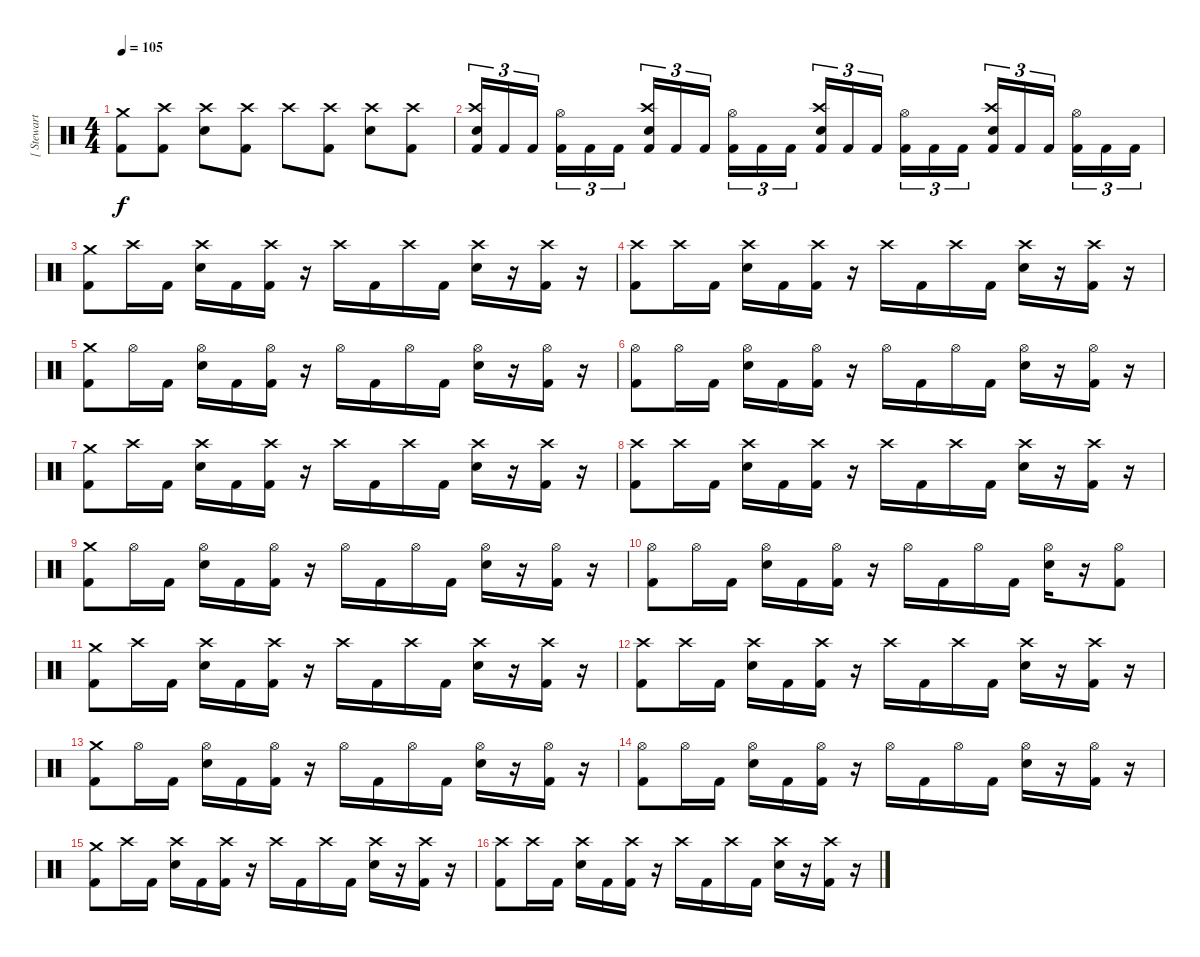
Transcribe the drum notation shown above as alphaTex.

\track ("[ Stewart ]" "[ Stewart ") {instrument percussion}
\staff {score}
\articulation defaults
\ts (4 4)
\tempo 105
\clef neutral
\ks c
("Kick (hit) 2" "Crash medium (hit)").8{dy f} ("Kick (hit) 2" "Crash high (hit)").8 ("Electric Snare (hit)" "Crash high (hit)").8 ("Kick (hit) 2" "Crash high (hit)").8 "Crash high (hit)".8 ("Kick (hit) 2" "Crash high (hit)").8 ("Electric Snare (hit)" "Crash high (hit)").8 ("Kick (hit) 2" "Crash high (hit)").8 |
("Kick (hit) 2" "Electric Snare (hit)" "Crash high (hit)").16{tu (3 2)} "Kick (hit) 2".16{tu (3 2)} "Kick (hit) 2".16{tu (3 2)} ("Kick (hit) 2" "Hi-Hat (open)").16{tu (3 2)} "Kick (hit) 2".16{tu (3 2)} "Kick (hit) 2".16{tu (3 2)} ("Kick (hit) 2" "Electric Snare (hit)" "Crash high (hit)").16{tu (3 2)} "Kick (hit) 2".16{tu (3 2)} "Kick (hit) 2".16{tu (3 2)} ("Kick (hit) 2" "Hi-Hat (open)").16{tu (3 2)} "Kick (hit) 2".16{tu (3 2)} "Kick (hit) 2".16{tu (3 2)} ("Kick (hit) 2" "Electric Snare (hit)" "Crash high (hit)").16{tu (3 2)} "Kick (hit) 2".16{tu (3 2)} "Kick (hit) 2".16{tu (3 2)} ("Kick (hit) 2" "Hi-Hat (open)").16{tu (3 2)} "Kick (hit) 2".16{tu (3 2)} "Kick (hit) 2".16{tu (3 2)} ("Kick (hit) 2" "Electric Snare (hit)" "Crash high (hit)").16{tu (3 2)} "Kick (hit) 2".16{tu (3 2)} "Kick (hit) 2".16{tu (3 2)} ("Kick (hit) 2" "Hi-Hat (open)").16{tu (3 2)} "Kick (hit) 2".16{tu (3 2)} "Kick (hit) 2".16{tu (3 2)} |
("Kick (hit) 2" "Crash medium (hit)").8 "Crash high (hit)".16 "Kick (hit) 2".16 ("Electric Snare (hit)" "Crash high (hit)").16 "Kick (hit) 2".16 ("Kick (hit) 2" "Crash high (hit)").16 r.16 "Crash high (hit)".16 "Kick (hit) 2".16 "Crash high (hit)".16 "Kick (hit) 2".16 ("Electric Snare (hit)" "Crash high (hit)").16 r.16 ("Kick (hit) 2" "Crash high (hit)").16 r.16 |
("Kick (hit) 2" "Crash high (hit)").8 "Crash high (hit)".16 "Kick (hit) 2".16 ("Electric Snare (hit)" "Crash high (hit)").16 "Kick (hit) 2".16 ("Kick (hit) 2" "Crash high (hit)").16 r.16 "Crash high (hit)".16 "Kick (hit) 2".16 "Crash high (hit)".16 "Kick (hit) 2".16 ("Electric Snare (hit)" "Crash high (hit)").16 r.16 ("Kick (hit) 2" "Crash high (hit)").16 r.16 |
("Kick (hit) 2" "Crash medium (hit)").8 "Hi-Hat (open)".16 "Kick (hit) 2".16 ("Electric Snare (hit)" "Hi-Hat (open)").16 "Kick (hit) 2".16 ("Kick (hit) 2" "Hi-Hat (open)").16 r.16 "Hi-Hat (open)".16 "Kick (hit) 2".16 "Hi-Hat (open)".16 "Kick (hit) 2".16 ("Electric Snare (hit)" "Hi-Hat (open)").16 r.16 ("Kick (hit) 2" "Hi-Hat (open)").16 r.16 |
("Kick (hit) 2" "Hi-Hat (open)").8 "Hi-Hat (open)".16 "Kick (hit) 2".16 ("Electric Snare (hit)" "Hi-Hat (open)").16 "Kick (hit) 2".16 ("Kick (hit) 2" "Hi-Hat (open)").16 r.16 "Hi-Hat (open)".16 "Kick (hit) 2".16 "Hi-Hat (open)".16 "Kick (hit) 2".16 ("Electric Snare (hit)" "Hi-Hat (open)").16 r.16 ("Kick (hit) 2" "Hi-Hat (open)").16 r.16 |
("Kick (hit) 2" "Crash medium (hit)").8 "Crash high (hit)".16 "Kick (hit) 2".16 ("Electric Snare (hit)" "Crash high (hit)").16 "Kick (hit) 2".16 ("Kick (hit) 2" "Crash high (hit)").16 r.16 "Crash high (hit)".16 "Kick (hit) 2".16 "Crash high (hit)".16 "Kick (hit) 2".16 ("Electric Snare (hit)" "Crash high (hit)").16 r.16 ("Kick (hit) 2" "Crash high (hit)").16 r.16 |
("Kick (hit) 2" "Crash high (hit)").8 "Crash high (hit)".16 "Kick (hit) 2".16 ("Electric Snare (hit)" "Crash high (hit)").16 "Kick (hit) 2".16 ("Kick (hit) 2" "Crash high (hit)").16 r.16 "Crash high (hit)".16 "Kick (hit) 2".16 "Crash high (hit)".16 "Kick (hit) 2".16 ("Electric Snare (hit)" "Crash high (hit)").16 r.16 ("Kick (hit) 2" "Crash high (hit)").16 r.16 |
("Kick (hit) 2" "Crash medium (hit)").8 "Hi-Hat (open)".16 "Kick (hit) 2".16 ("Electric Snare (hit)" "Hi-Hat (open)").16 "Kick (hit) 2".16 ("Kick (hit) 2" "Hi-Hat (open)").16 r.16 "Hi-Hat (open)".16 "Kick (hit) 2".16 "Hi-Hat (open)".16 "Kick (hit) 2".16 ("Electric Snare (hit)" "Hi-Hat (open)").16 r.16 ("Kick (hit) 2" "Hi-Hat (open)").16 r.16 |
("Kick (hit) 2" "Hi-Hat (open)").8 "Hi-Hat (open)".16 "Kick (hit) 2".16 ("Electric Snare (hit)" "Hi-Hat (open)").16 "Kick (hit) 2".16 ("Kick (hit) 2" "Hi-Hat (open)").16 r.16 "Hi-Hat (open)".16 "Kick (hit) 2".16 "Hi-Hat (open)".16 "Kick (hit) 2".16 ("Electric Snare (hit)" "Hi-Hat (open)").16 r.16 ("Kick (hit) 2" "Hi-Hat (open)").8 |
("Kick (hit) 2" "Crash medium (hit)").8 "Crash high (hit)".16 "Kick (hit) 2".16 ("Electric Snare (hit)" "Crash high (hit)").16 "Kick (hit) 2".16 ("Kick (hit) 2" "Crash high (hit)").16 r.16 "Crash high (hit)".16 "Kick (hit) 2".16 "Crash high (hit)".16 "Kick (hit) 2".16 ("Electric Snare (hit)" "Crash high (hit)").16 r.16 ("Kick (hit) 2" "Crash high (hit)").16 r.16 |
("Kick (hit) 2" "Crash high (hit)").8 "Crash high (hit)".16 "Kick (hit) 2".16 ("Electric Snare (hit)" "Crash high (hit)").16 "Kick (hit) 2".16 ("Kick (hit) 2" "Crash high (hit)").16 r.16 "Crash high (hit)".16 "Kick (hit) 2".16 "Crash high (hit)".16 "Kick (hit) 2".16 ("Electric Snare (hit)" "Crash high (hit)").16 r.16 ("Kick (hit) 2" "Crash high (hit)").16 r.16 |
("Kick (hit) 2" "Crash medium (hit)").8 "Hi-Hat (open)".16 "Kick (hit) 2".16 ("Electric Snare (hit)" "Hi-Hat (open)").16 "Kick (hit) 2".16 ("Kick (hit) 2" "Hi-Hat (open)").16 r.16 "Hi-Hat (open)".16 "Kick (hit) 2".16 "Hi-Hat (open)".16 "Kick (hit) 2".16 ("Electric Snare (hit)" "Hi-Hat (open)").16 r.16 ("Kick (hit) 2" "Hi-Hat (open)").16 r.16 |
("Kick (hit) 2" "Hi-Hat (open)").8 "Hi-Hat (open)".16 "Kick (hit) 2".16 ("Electric Snare (hit)" "Hi-Hat (open)").16 "Kick (hit) 2".16 ("Kick (hit) 2" "Hi-Hat (open)").16 r.16 "Hi-Hat (open)".16 "Kick (hit) 2".16 "Hi-Hat (open)".16 "Kick (hit) 2".16 ("Electric Snare (hit)" "Hi-Hat (open)").16 r.16 ("Kick (hit) 2" "Hi-Hat (open)").16 r.16 |
("Kick (hit) 2" "Crash medium (hit)").8 "Crash high (hit)".16 "Kick (hit) 2".16 ("Electric Snare (hit)" "Crash high (hit)").16 "Kick (hit) 2".16 ("Kick (hit) 2" "Crash high (hit)").16 r.16 "Crash high (hit)".16 "Kick (hit) 2".16 "Crash high (hit)".16 "Kick (hit) 2".16 ("Electric Snare (hit)" "Crash high (hit)").16 r.16 ("Kick (hit) 2" "Crash high (hit)").16 r.16 |
("Kick (hit) 2" "Crash high (hit)").8 "Crash high (hit)".16 "Kick (hit) 2".16 ("Electric Snare (hit)" "Crash high (hit)").16 "Kick (hit) 2".16 ("Kick (hit) 2" "Crash high (hit)").16 r.16 "Crash high (hit)".16 "Kick (hit) 2".16 "Crash high (hit)".16 "Kick (hit) 2".16 ("Electric Snare (hit)" "Crash high (hit)").16 r.16 ("Kick (hit) 2" "Crash high (hit)").16 r.16
